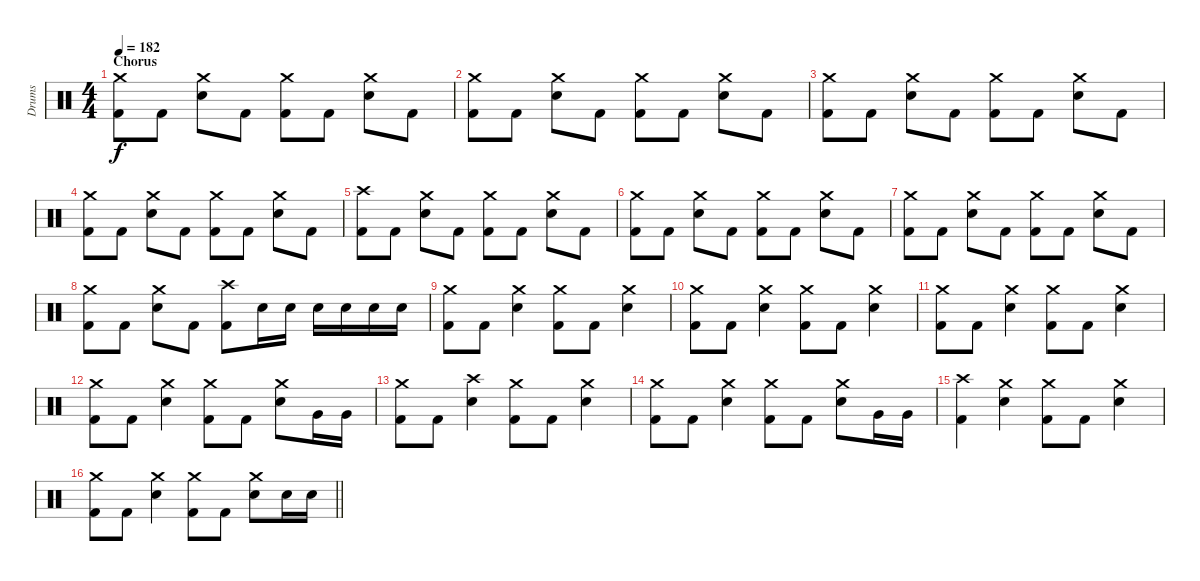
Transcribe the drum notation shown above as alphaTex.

\track ("Drums" "Drums") {instrument percussion}
\staff {score}
\articulation defaults
\ts (4 4)
\section ("" "Chorus")
\tempo 182
\clef neutral
\ks c
("Crash medium (hit)" "Kick (hit) 2").8{dy f} "Kick (hit) 2".8 ("Crash medium (hit)" "Electric Snare (hit)").8 "Kick (hit) 2".8 ("Crash medium (hit)" "Kick (hit) 2").8 "Kick (hit) 2".8 ("Crash medium (hit)" "Electric Snare (hit)").8 "Kick (hit) 2".8 |
("Crash medium (hit)" "Kick (hit) 2").8 "Kick (hit) 2".8 ("Crash medium (hit)" "Electric Snare (hit)").8 "Kick (hit) 2".8 ("Crash medium (hit)" "Kick (hit) 2").8 "Kick (hit) 2".8 ("Crash medium (hit)" "Electric Snare (hit)").8 "Kick (hit) 2".8 |
("Crash medium (hit)" "Kick (hit) 2").8 "Kick (hit) 2".8 ("Crash medium (hit)" "Electric Snare (hit)").8 "Kick (hit) 2".8 ("Crash medium (hit)" "Kick (hit) 2").8 "Kick (hit) 2".8 ("Crash medium (hit)" "Electric Snare (hit)").8 "Kick (hit) 2".8 |
("Crash medium (hit)" "Kick (hit) 2").8 "Kick (hit) 2".8 ("Crash medium (hit)" "Electric Snare (hit)").8 "Kick (hit) 2".8 ("Crash medium (hit)" "Kick (hit) 2").8 "Kick (hit) 2".8 ("Crash medium (hit)" "Electric Snare (hit)").8 "Kick (hit) 2".8 |
("Crash high (hit)" "Kick (hit) 2").8 "Kick (hit) 2".8 ("Crash medium (hit)" "Electric Snare (hit)").8 "Kick (hit) 2".8 ("Crash medium (hit)" "Kick (hit) 2").8 "Kick (hit) 2".8 ("Crash medium (hit)" "Electric Snare (hit)").8 "Kick (hit) 2".8 |
("Crash medium (hit)" "Kick (hit) 2").8 "Kick (hit) 2".8 ("Crash medium (hit)" "Electric Snare (hit)").8 "Kick (hit) 2".8 ("Crash medium (hit)" "Kick (hit) 2").8 "Kick (hit) 2".8 ("Crash medium (hit)" "Electric Snare (hit)").8 "Kick (hit) 2".8 |
("Crash medium (hit)" "Kick (hit) 2").8 "Kick (hit) 2".8 ("Crash medium (hit)" "Electric Snare (hit)").8 "Kick (hit) 2".8 ("Crash medium (hit)" "Kick (hit) 2").8 "Kick (hit) 2".8 ("Crash medium (hit)" "Electric Snare (hit)").8 "Kick (hit) 2".8 |
("Crash medium (hit)" "Kick (hit) 2").8 "Kick (hit) 2".8 ("Crash medium (hit)" "Electric Snare (hit)").8 "Kick (hit) 2".8 ("Crash high (hit)" "Kick (hit) 2").8 "Electric Snare (hit)".16 "Electric Snare (hit)".16 "Electric Snare (hit)".16 "Electric Snare (hit)".16 "Electric Snare (hit)".16 "Electric Snare (hit)".16 |
("Crash medium (hit)" "Kick (hit) 2").8 "Kick (hit) 2".8 ("Crash medium (hit)" "Electric Snare (hit)").4 ("Crash medium (hit)" "Kick (hit) 2").8 "Kick (hit) 2".8 ("Crash medium (hit)" "Electric Snare (hit)").4 |
("Crash medium (hit)" "Kick (hit) 2").8 "Kick (hit) 2".8 ("Crash medium (hit)" "Electric Snare (hit)").4 ("Crash medium (hit)" "Kick (hit) 2").8 "Kick (hit) 2".8 ("Crash medium (hit)" "Electric Snare (hit)").4 |
("Crash medium (hit)" "Kick (hit) 2").8 "Kick (hit) 2".8 ("Crash medium (hit)" "Electric Snare (hit)").4 ("Crash medium (hit)" "Kick (hit) 2").8 "Kick (hit) 2".8 ("Crash medium (hit)" "Electric Snare (hit)").4 |
("Crash medium (hit)" "Kick (hit) 2").8 "Kick (hit) 2".8 ("Crash medium (hit)" "Electric Snare (hit)").4 ("Crash medium (hit)" "Kick (hit) 2").8 "Kick (hit) 2".8 ("Crash medium (hit)" "Electric Snare (hit)").8 "Very Low Tom (hit)".16 "Very Low Tom (hit)".16 |
("Crash medium (hit)" "Kick (hit) 2").8 "Kick (hit) 2".8 ("Crash high (hit)" "Electric Snare (hit)").4 ("Crash medium (hit)" "Kick (hit) 2").8 "Kick (hit) 2".8 ("Crash medium (hit)" "Electric Snare (hit)").4 |
("Crash medium (hit)" "Kick (hit) 2").8 "Kick (hit) 2".8 ("Crash medium (hit)" "Electric Snare (hit)").4 ("Crash medium (hit)" "Kick (hit) 2").8 "Kick (hit) 2".8 ("Crash medium (hit)" "Electric Snare (hit)").8 "Very Low Tom (hit)".16 "Very Low Tom (hit)".16 |
("Crash high (hit)" "Kick (hit) 2").4 ("Crash medium (hit)" "Electric Snare (hit)").4 ("Crash medium (hit)" "Kick (hit) 2").8 "Kick (hit) 2".8 ("Crash medium (hit)" "Electric Snare (hit)").4 |
\barLineRight lightlight
("Crash medium (hit)" "Kick (hit) 2").8 "Kick (hit) 2".8 ("Crash medium (hit)" "Electric Snare (hit)").4 ("Crash medium (hit)" "Kick (hit) 2").8 "Kick (hit) 2".8 ("Crash medium (hit)" "Electric Snare (hit)").8 "Electric Snare (hit)".16 "Electric Snare (hit)".16
